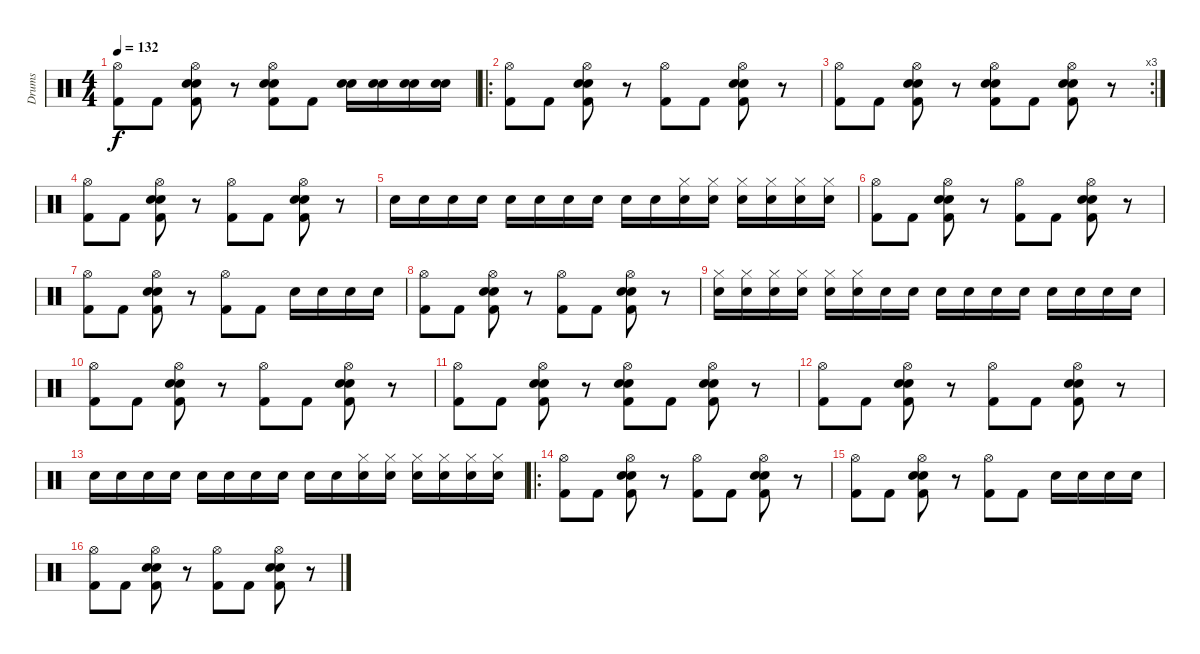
\track ("Drums" "Drums") {instrument percussion}
\staff {score}
\articulation defaults
\ts (4 4)
\tempo 132
\clef neutral
\ks c
("Hi-Hat (open)" "Kick (hit) 2").8{dy f} "Kick (hit) 2".8 ("Hi-Hat (open)" "Electric Snare (hit)" "Snare (hit) 2" "Kick (hit) 2").8 r.8 ("Hi-Hat (open)" "Electric Snare (hit)" "Snare (hit) 2" "Kick (hit) 2").8 "Kick (hit) 2".8 ("Electric Snare (hit)" "Snare (hit) 2").16 ("Electric Snare (hit)" "Snare (hit) 2").16 ("Electric Snare (hit)" "Snare (hit) 2").16 ("Electric Snare (hit)" "Snare (hit) 2").16 |
\ro
("Hi-Hat (open)" "Kick (hit) 2").8 "Kick (hit) 2".8 ("Hi-Hat (open)" "Electric Snare (hit)" "Snare (hit) 2" "Kick (hit) 2").8 r.8 ("Hi-Hat (open)" "Kick (hit) 2").8 "Kick (hit) 2".8 ("Hi-Hat (open)" "Electric Snare (hit)" "Snare (hit) 2" "Kick (hit) 2").8 r.8 |
\rc 3
("Hi-Hat (open)" "Kick (hit) 2").8 "Kick (hit) 2".8 ("Hi-Hat (open)" "Electric Snare (hit)" "Snare (hit) 2" "Kick (hit) 2").8 r.8 ("Hi-Hat (open)" "Electric Snare (hit)" "Snare (hit) 2" "Kick (hit) 2").8 "Kick (hit) 2".8 ("Hi-Hat (open)" "Electric Snare (hit)" "Snare (hit) 2" "Kick (hit) 2").8 r.8 |
("Hi-Hat (open)" "Kick (hit) 2").8 "Kick (hit) 2".8 ("Hi-Hat (open)" "Electric Snare (hit)" "Snare (hit) 2" "Kick (hit) 2").8 r.8 ("Hi-Hat (open)" "Kick (hit) 2").8 "Kick (hit) 2".8 ("Hi-Hat (open)" "Electric Snare (hit)" "Snare (hit) 2" "Kick (hit) 2").8 r.8 |
"Snare (hit) 2".16 "Snare (hit) 2".16 "Snare (hit) 2".16 "Snare (hit) 2".16 "Snare (hit) 2".16 "Snare (hit) 2".16 "Electric Snare (hit)".16 "Electric Snare (hit)".16 "Electric Snare (hit)".16 "Electric Snare (hit)".16 ("Hi-Hat (closed)" "Electric Snare (hit)").16 ("Hi-Hat (closed)" "Electric Snare (hit)").16 ("Hi-Hat (closed)" "Electric Snare (hit)").16 ("Hi-Hat (closed)" "Electric Snare (hit)").16 ("Hi-Hat (closed)" "Electric Snare (hit)").16 ("Hi-Hat (closed)" "Electric Snare (hit)").16 |
("Hi-Hat (open)" "Kick (hit) 2").8 "Kick (hit) 2".8 ("Hi-Hat (open)" "Electric Snare (hit)" "Snare (hit) 2" "Kick (hit) 2").8 r.8 ("Hi-Hat (open)" "Kick (hit) 2").8 "Kick (hit) 2".8 ("Hi-Hat (open)" "Electric Snare (hit)" "Snare (hit) 2" "Kick (hit) 2").8 r.8 |
("Hi-Hat (open)" "Kick (hit) 2").8 "Kick (hit) 2".8 ("Hi-Hat (open)" "Electric Snare (hit)" "Snare (hit) 2" "Kick (hit) 2").8 r.8 ("Hi-Hat (open)" "Kick (hit) 2").8 "Kick (hit) 2".8 "Snare (hit) 2".16 "Snare (hit) 2".16 "Snare (hit) 2".16 "Snare (hit) 2".16 |
("Hi-Hat (open)" "Kick (hit) 2").8 "Kick (hit) 2".8 ("Hi-Hat (open)" "Electric Snare (hit)" "Snare (hit) 2" "Kick (hit) 2").8 r.8 ("Hi-Hat (open)" "Kick (hit) 2").8 "Kick (hit) 2".8 ("Hi-Hat (open)" "Electric Snare (hit)" "Snare (hit) 2" "Kick (hit) 2").8 r.8 |
("Hi-Hat (closed)" "Electric Snare (hit)").16 ("Hi-Hat (closed)" "Electric Snare (hit)").16 ("Hi-Hat (closed)" "Electric Snare (hit)").16 ("Hi-Hat (closed)" "Electric Snare (hit)").16 ("Hi-Hat (closed)" "Electric Snare (hit)").16 ("Hi-Hat (closed)" "Electric Snare (hit)").16 "Electric Snare (hit)".16 "Electric Snare (hit)".16 "Electric Snare (hit)".16 "Electric Snare (hit)".16 "Snare (hit) 2".16 "Snare (hit) 2".16 "Snare (hit) 2".16 "Snare (hit) 2".16 "Snare (hit) 2".16 "Snare (hit) 2".16 |
("Hi-Hat (open)" "Kick (hit) 2").8 "Kick (hit) 2".8 ("Hi-Hat (open)" "Electric Snare (hit)" "Snare (hit) 2" "Kick (hit) 2").8 r.8 ("Hi-Hat (open)" "Kick (hit) 2").8 "Kick (hit) 2".8 ("Hi-Hat (open)" "Electric Snare (hit)" "Snare (hit) 2" "Kick (hit) 2").8 r.8 |
("Hi-Hat (open)" "Kick (hit) 2").8 "Kick (hit) 2".8 ("Hi-Hat (open)" "Electric Snare (hit)" "Snare (hit) 2" "Kick (hit) 2").8 r.8 ("Hi-Hat (open)" "Electric Snare (hit)" "Snare (hit) 2" "Kick (hit) 2").8 "Kick (hit) 2".8 ("Hi-Hat (open)" "Electric Snare (hit)" "Snare (hit) 2" "Kick (hit) 2").8 r.8 |
("Hi-Hat (open)" "Kick (hit) 2").8 "Kick (hit) 2".8 ("Hi-Hat (open)" "Electric Snare (hit)" "Snare (hit) 2" "Kick (hit) 2").8 r.8 ("Hi-Hat (open)" "Kick (hit) 2").8 "Kick (hit) 2".8 ("Hi-Hat (open)" "Electric Snare (hit)" "Snare (hit) 2" "Kick (hit) 2").8 r.8 |
"Snare (hit) 2".16 "Snare (hit) 2".16 "Snare (hit) 2".16 "Snare (hit) 2".16 "Snare (hit) 2".16 "Snare (hit) 2".16 "Electric Snare (hit)".16 "Electric Snare (hit)".16 "Electric Snare (hit)".16 "Electric Snare (hit)".16 ("Hi-Hat (closed)" "Electric Snare (hit)").16 ("Hi-Hat (closed)" "Electric Snare (hit)").16 ("Hi-Hat (closed)" "Electric Snare (hit)").16 ("Hi-Hat (closed)" "Electric Snare (hit)").16 ("Hi-Hat (closed)" "Electric Snare (hit)").16 ("Hi-Hat (closed)" "Electric Snare (hit)").16 |
\ro
("Hi-Hat (open)" "Kick (hit) 2").8 "Kick (hit) 2".8 ("Hi-Hat (open)" "Electric Snare (hit)" "Snare (hit) 2" "Kick (hit) 2").8 r.8 ("Hi-Hat (open)" "Kick (hit) 2").8 "Kick (hit) 2".8 ("Hi-Hat (open)" "Electric Snare (hit)" "Snare (hit) 2" "Kick (hit) 2").8 r.8 |
("Hi-Hat (open)" "Kick (hit) 2").8 "Kick (hit) 2".8 ("Hi-Hat (open)" "Electric Snare (hit)" "Snare (hit) 2" "Kick (hit) 2").8 r.8 ("Hi-Hat (open)" "Kick (hit) 2").8 "Kick (hit) 2".8 "Snare (hit) 2".16 "Snare (hit) 2".16 "Snare (hit) 2".16 "Snare (hit) 2".16 |
("Hi-Hat (open)" "Kick (hit) 2").8 "Kick (hit) 2".8 ("Hi-Hat (open)" "Electric Snare (hit)" "Snare (hit) 2" "Kick (hit) 2").8 r.8 ("Hi-Hat (open)" "Kick (hit) 2").8 "Kick (hit) 2".8 ("Hi-Hat (open)" "Electric Snare (hit)" "Snare (hit) 2" "Kick (hit) 2").8 r.8
